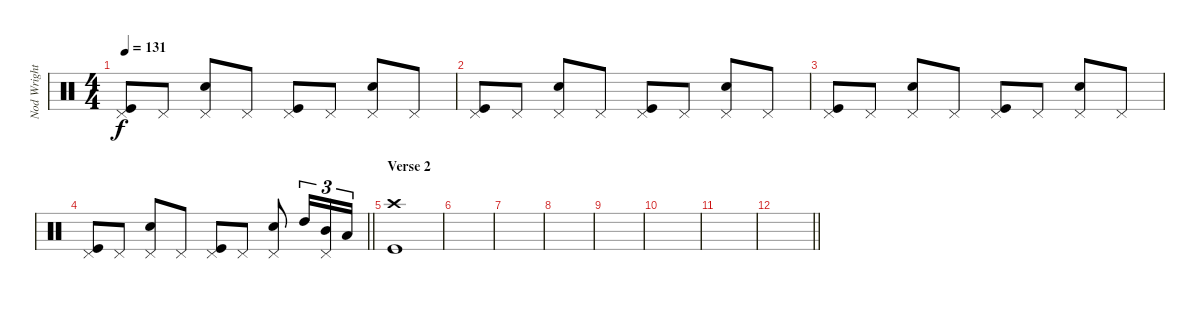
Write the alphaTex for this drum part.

\track ("Nod Wright" "Nod Wright") {instrument percussion}
\staff {score}
\articulation defaults
\ts (4 4)
\tempo 131
\clef neutral
\ks c
("Pedal Hi-Hat (hit)" "Kick (hit)").8{dy f} "Pedal Hi-Hat (hit)".8 ("Pedal Hi-Hat (hit)" "Snare (hit) 2").8 "Pedal Hi-Hat (hit)".8 ("Pedal Hi-Hat (hit)" "Kick (hit)").8 "Pedal Hi-Hat (hit)".8 ("Pedal Hi-Hat (hit)" "Snare (hit) 2").8 "Pedal Hi-Hat (hit)".8 |
("Pedal Hi-Hat (hit)" "Kick (hit)").8 "Pedal Hi-Hat (hit)".8 ("Pedal Hi-Hat (hit)" "Snare (hit) 2").8 "Pedal Hi-Hat (hit)".8 ("Pedal Hi-Hat (hit)" "Kick (hit)").8 "Pedal Hi-Hat (hit)".8 ("Pedal Hi-Hat (hit)" "Snare (hit) 2").8 "Pedal Hi-Hat (hit)".8 |
("Pedal Hi-Hat (hit)" "Kick (hit)").8 "Pedal Hi-Hat (hit)".8 ("Pedal Hi-Hat (hit)" "Snare (hit) 2").8 "Pedal Hi-Hat (hit)".8 ("Pedal Hi-Hat (hit)" "Kick (hit)").8 "Pedal Hi-Hat (hit)".8 ("Pedal Hi-Hat (hit)" "Snare (hit) 2").8 "Pedal Hi-Hat (hit)".8 |
\barLineRight lightlight
("Pedal Hi-Hat (hit)" "Kick (hit)").8 "Pedal Hi-Hat (hit)".8 ("Pedal Hi-Hat (hit)" "Snare (hit) 2").8 "Pedal Hi-Hat (hit)".8 ("Pedal Hi-Hat (hit)" "Kick (hit)").8 "Pedal Hi-Hat (hit)".8 ("Pedal Hi-Hat (hit)" "Snare (hit) 2").8 "High Tom (hit)".16{tu (3 2)} ("Pedal Hi-Hat (hit)" "Mid Tom (hit)").16{tu (3 2)} "Low Tom (hit)".16{tu (3 2)} |
\section ("" "Verse 2")
("Crash high (hit)" "Kick (hit)").1 |
|
|
|
|
|
|
\barLineRight lightlight
